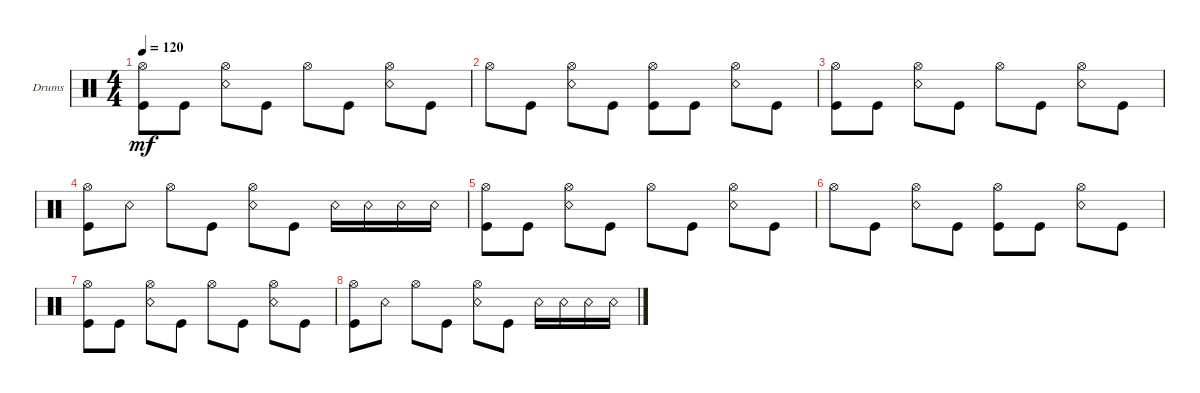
\defaultSystemsLayout 4
\bracketExtendMode groupsimilarinstruments
\firstSystemTrackNameOrientation horizontal
\otherSystemsTrackNameOrientation horizontal
\track ("Roman Vorontcov" "Drums") {instrument percussion}
\staff {score}
\articulation defaults
\ts (4 4)
\tempo 120
\clef neutral
\ks c
("Kick (hit)" "Hi-Hat (open)").8{dy mf} "Kick (hit)".8 ("Snare (rim shot)" "Hi-Hat (open)").8 "Kick (hit)".8 "Hi-Hat (open)".8 "Kick (hit)".8 ("Snare (rim shot)" "Hi-Hat (open)").8 "Kick (hit)".8 |
"Hi-Hat (open)".8 "Kick (hit)".8 ("Snare (rim shot)" "Hi-Hat (open)").8 "Kick (hit)".8 ("Kick (hit)" "Hi-Hat (open)").8 "Kick (hit)".8 ("Snare (rim shot)" "Hi-Hat (open)").8 "Kick (hit)".8 |
("Kick (hit)" "Hi-Hat (open)").8 "Kick (hit)".8 ("Snare (rim shot)" "Hi-Hat (open)").8 "Kick (hit)".8 "Hi-Hat (open)".8 "Kick (hit)".8 ("Snare (rim shot)" "Hi-Hat (open)").8 "Kick (hit)".8 |
("Hi-Hat (open)" "Kick (hit)").8 "Snare (rim shot)".8 "Hi-Hat (open)".8 "Kick (hit)".8 ("Snare (rim shot)" "Hi-Hat (open)").8 "Kick (hit)".8 "Snare (rim shot)".16 "Snare (rim shot)".16 "Snare (rim shot)".16 "Snare (rim shot)".16 |
("Kick (hit)" "Hi-Hat (open)").8 "Kick (hit)".8 ("Snare (rim shot)" "Hi-Hat (open)").8 "Kick (hit)".8 "Hi-Hat (open)".8 "Kick (hit)".8 ("Snare (rim shot)" "Hi-Hat (open)").8 "Kick (hit)".8 |
"Hi-Hat (open)".8 "Kick (hit)".8 ("Snare (rim shot)" "Hi-Hat (open)").8 "Kick (hit)".8 ("Kick (hit)" "Hi-Hat (open)").8 "Kick (hit)".8 ("Snare (rim shot)" "Hi-Hat (open)").8 "Kick (hit)".8 |
("Kick (hit)" "Hi-Hat (open)").8 "Kick (hit)".8 ("Snare (rim shot)" "Hi-Hat (open)").8 "Kick (hit)".8 "Hi-Hat (open)".8 "Kick (hit)".8 ("Snare (rim shot)" "Hi-Hat (open)").8 "Kick (hit)".8 |
("Hi-Hat (open)" "Kick (hit)").8 "Snare (rim shot)".8 "Hi-Hat (open)".8 "Kick (hit)".8 ("Snare (rim shot)" "Hi-Hat (open)").8 "Kick (hit)".8 "Snare (rim shot)".16 "Snare (rim shot)".16 "Snare (rim shot)".16 "Snare (rim shot)".16
